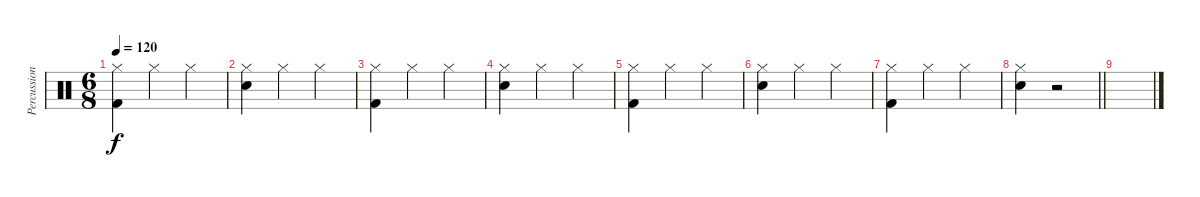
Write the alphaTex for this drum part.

\track ("Percussion" "Percussion") {instrument percussion}
\staff {score}
\articulation defaults
\ts (6 8)
\tempo 120
\clef neutral
\ks c
("Hi-Hat (closed)" "Kick (hit) 2").4{dy f} "Hi-Hat (closed)".4 "Hi-Hat (closed)".4 |
("Hi-Hat (closed)" "Snare (hit) 2").4 "Hi-Hat (closed)".4 "Hi-Hat (closed)".4 |
("Hi-Hat (closed)" "Kick (hit) 2").4 "Hi-Hat (closed)".4 "Hi-Hat (closed)".4 |
("Hi-Hat (closed)" "Snare (hit) 2").4 "Hi-Hat (closed)".4 "Hi-Hat (closed)".4 |
("Hi-Hat (closed)" "Kick (hit) 2").4 "Hi-Hat (closed)".4 "Hi-Hat (closed)".4 |
("Hi-Hat (closed)" "Snare (hit) 2").4 "Hi-Hat (closed)".4 "Hi-Hat (closed)".4 |
("Hi-Hat (closed)" "Kick (hit) 2").4 "Hi-Hat (closed)".4 "Hi-Hat (closed)".4 |
\barLineRight lightlight
("Hi-Hat (closed)" "Snare (hit) 2").4 r.2 |
\section ("" "")
